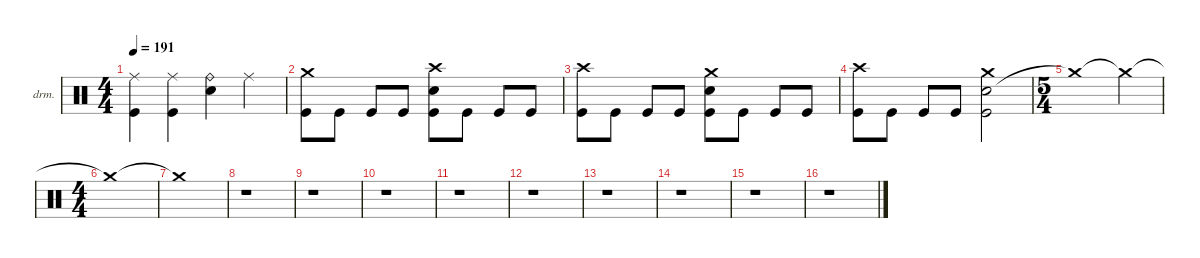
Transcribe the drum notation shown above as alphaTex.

\defaultSystemsLayout 4
\hideDynamics
\bracketExtendMode nobrackets
\firstSystemTrackNameOrientation horizontal
\otherSystemsTrackNameOrientation horizontal
\track ("Drumkit" "drm.") {instrument percussion}
\staff {score}
\articulation defaults
\ts (4 4)
\tempo 191
\clef neutral
\ks c
("Ride (middle)" "Kick (hit)").4{dy f beam Down} ("Ride (middle)" "Kick (hit)").4{beam Down} ("Ride (bell)" "Snare (hit) 2").4{beam Down} "Ride (middle)".4{beam Down} |
("Kick (hit)" "Crash medium (hit)").8{beam Down} "Kick (hit)".8{beam Down} "Kick (hit)".8{beam Up} "Kick (hit)".8{beam Up} ("Snare (hit) 2" "Kick (hit)" "Crash high (hit)").8{beam Down} "Kick (hit)".8{beam Down} "Kick (hit)".8{beam Up} "Kick (hit)".8{beam Up} |
("Kick (hit)" "Crash high (hit)").8{beam Down} "Kick (hit)".8{beam Down} "Kick (hit)".8{beam Up} "Kick (hit)".8{beam Up} ("Snare (hit) 2" "Kick (hit)" "Crash medium (hit)").8{beam Down} "Kick (hit)".8{beam Down} "Kick (hit)".8{beam Up} "Kick (hit)".8{beam Up} |
("Kick (hit)" "Crash high (hit)").8{beam Down} "Kick (hit)".8{beam Down} "Kick (hit)".8{beam Up} "Kick (hit)".8{beam Up} ("Snare (hit) 2" "Kick (hit)" "Crash medium (hit)").2{beam Down} |
\ts (5 4)
\beaming (8 6 4)
"Crash medium (hit)"{t}.1{beam Down} "Crash medium (hit)"{t}.4{beam Down} |
\ts (4 4)
\beaming (8 2 2 2 2)
"Crash medium (hit)"{t}.1{beam Down} |
"Crash medium (hit)"{t}.1{beam Down} |
r.1{beam Down} |
r.1{beam Down} |
r.1{beam Down} |
r.1{beam Down} |
r.1{beam Down} |
r.1{beam Down} |
r.1{beam Down} |
r.1{beam Down} |
r.1{beam Down}
